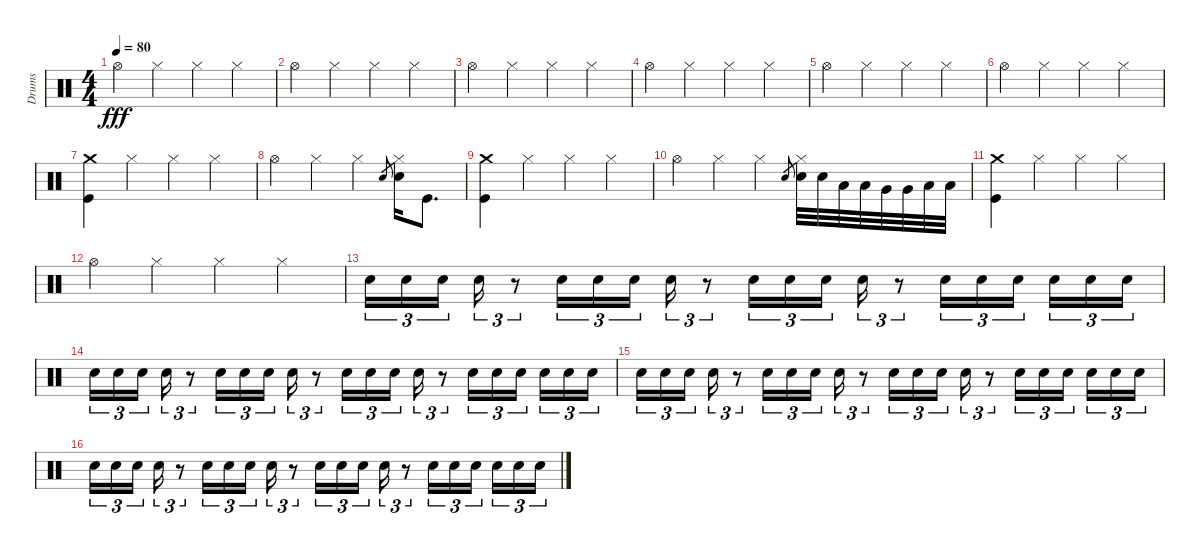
\track ("Drums" "Drums") {instrument percussion}
\staff {score}
\articulation defaults
\ts (4 4)
\tempo 80
\clef neutral
\ks c "Hi-Hat (open)".4{dy fff} "Hi-Hat (closed)".4 "Hi-Hat (closed)".4 "Hi-Hat (closed)".4
|
"Hi-Hat (open)".4 "Hi-Hat (closed)".4 "Hi-Hat (closed)".4 "Hi-Hat (closed)".4 |
"Hi-Hat (open)".4 "Hi-Hat (closed)".4 "Hi-Hat (closed)".4 "Hi-Hat (closed)".4 |
"Hi-Hat (open)".4 "Hi-Hat (closed)".4 "Hi-Hat (closed)".4 "Hi-Hat (closed)".4 |
"Hi-Hat (open)".4 "Hi-Hat (closed)".4 "Hi-Hat (closed)".4 "Hi-Hat (closed)".4 |
"Hi-Hat (open)".4 "Hi-Hat (closed)".4 "Hi-Hat (closed)".4 "Hi-Hat (closed)".4 |
("Kick (hit)" "Crash medium (hit)").4 "Hi-Hat (closed)".4 "Hi-Hat (closed)".4 "Hi-Hat (closed)".4 |
"Hi-Hat (open)".4 "Hi-Hat (closed)".4 "Hi-Hat (closed)".4 "Snare (hit)".8{gr} ("Hi-Hat (closed)" "Snare (hit) 2").16 "Kick (hit)".8{d} |
("Kick (hit)" "Crash medium (hit)").4 "Hi-Hat (closed)".4 "Hi-Hat (closed)".4 "Hi-Hat (closed)".4 |
"Hi-Hat (open)".4 "Hi-Hat (closed)".4 "Hi-Hat (closed)".4 "Snare (hit)".8{gr} ("Hi-Hat (closed)" "Snare (hit) 2").32 "Snare (hit) 2".32 "Low Tom (hit)".32 "Low Tom (hit)".32 "Very Low Tom (hit)".32 "Very Low Tom (hit)".32 "Low Floor Tom (hit)".32 "Low Floor Tom (hit)".32 |
("Kick (hit)" "Crash medium (hit)").4 "Hi-Hat (closed)".4 "Hi-Hat (closed)".4 "Hi-Hat (closed)".4 |
"Hi-Hat (open)".4 "Hi-Hat (closed)".4 "Hi-Hat (closed)".4 "Hi-Hat (closed)".4 |
"Snare (hit) 2".16{tu (3 2)} "Snare (hit) 2".16{tu (3 2)} "Snare (hit) 2".16{tu (3 2)} "Snare (hit) 2".16{tu (3 2)} r.8{tu (3 2)} "Snare (hit) 2".16{tu (3 2)} "Snare (hit) 2".16{tu (3 2)} "Snare (hit) 2".16{tu (3 2)} "Snare (hit) 2".16{tu (3 2)} r.8{tu (3 2)} "Snare (hit) 2".16{tu (3 2)} "Snare (hit) 2".16{tu (3 2)} "Snare (hit) 2".16{tu (3 2)} "Snare (hit) 2".16{tu (3 2)} r.8{tu (3 2)} "Snare (hit) 2".16{tu (3 2)} "Snare (hit) 2".16{tu (3 2)} "Snare (hit) 2".16{tu (3 2)} "Snare (hit) 2".16{tu (3 2)} "Snare (hit) 2".16{tu (3 2)} "Snare (hit) 2".16{tu (3 2)} |
"Snare (hit) 2".16{tu (3 2)} "Snare (hit) 2".16{tu (3 2)} "Snare (hit) 2".16{tu (3 2)} "Snare (hit) 2".16{tu (3 2)} r.8{tu (3 2)} "Snare (hit) 2".16{tu (3 2)} "Snare (hit) 2".16{tu (3 2)} "Snare (hit) 2".16{tu (3 2)} "Snare (hit) 2".16{tu (3 2)} r.8{tu (3 2)} "Snare (hit) 2".16{tu (3 2)} "Snare (hit) 2".16{tu (3 2)} "Snare (hit) 2".16{tu (3 2)} "Snare (hit) 2".16{tu (3 2)} r.8{tu (3 2)} "Snare (hit) 2".16{tu (3 2)} "Snare (hit) 2".16{tu (3 2)} "Snare (hit) 2".16{tu (3 2)} "Snare (hit) 2".16{tu (3 2)} "Snare (hit) 2".16{tu (3 2)} "Snare (hit) 2".16{tu (3 2)} |
"Snare (hit) 2".16{tu (3 2)} "Snare (hit) 2".16{tu (3 2)} "Snare (hit) 2".16{tu (3 2)} "Snare (hit) 2".16{tu (3 2)} r.8{tu (3 2)} "Snare (hit) 2".16{tu (3 2)} "Snare (hit) 2".16{tu (3 2)} "Snare (hit) 2".16{tu (3 2)} "Snare (hit) 2".16{tu (3 2)} r.8{tu (3 2)} "Snare (hit) 2".16{tu (3 2)} "Snare (hit) 2".16{tu (3 2)} "Snare (hit) 2".16{tu (3 2)} "Snare (hit) 2".16{tu (3 2)} r.8{tu (3 2)} "Snare (hit) 2".16{tu (3 2)} "Snare (hit) 2".16{tu (3 2)} "Snare (hit) 2".16{tu (3 2)} "Snare (hit) 2".16{tu (3 2)} "Snare (hit) 2".16{tu (3 2)} "Snare (hit) 2".16{tu (3 2)} |
"Snare (hit) 2".16{tu (3 2)} "Snare (hit) 2".16{tu (3 2)} "Snare (hit) 2".16{tu (3 2)} "Snare (hit) 2".16{tu (3 2)} r.8{tu (3 2)} "Snare (hit) 2".16{tu (3 2)} "Snare (hit) 2".16{tu (3 2)} "Snare (hit) 2".16{tu (3 2)} "Snare (hit) 2".16{tu (3 2)} r.8{tu (3 2)} "Snare (hit) 2".16{tu (3 2)} "Snare (hit) 2".16{tu (3 2)} "Snare (hit) 2".16{tu (3 2)} "Snare (hit) 2".16{tu (3 2)} r.8{tu (3 2)} "Snare (hit) 2".16{tu (3 2)} "Snare (hit) 2".16{tu (3 2)} "Snare (hit) 2".16{tu (3 2)} "Snare (hit) 2".16{tu (3 2)} "Snare (hit) 2".16{tu (3 2)} "Snare (hit) 2".16{tu (3 2)}
